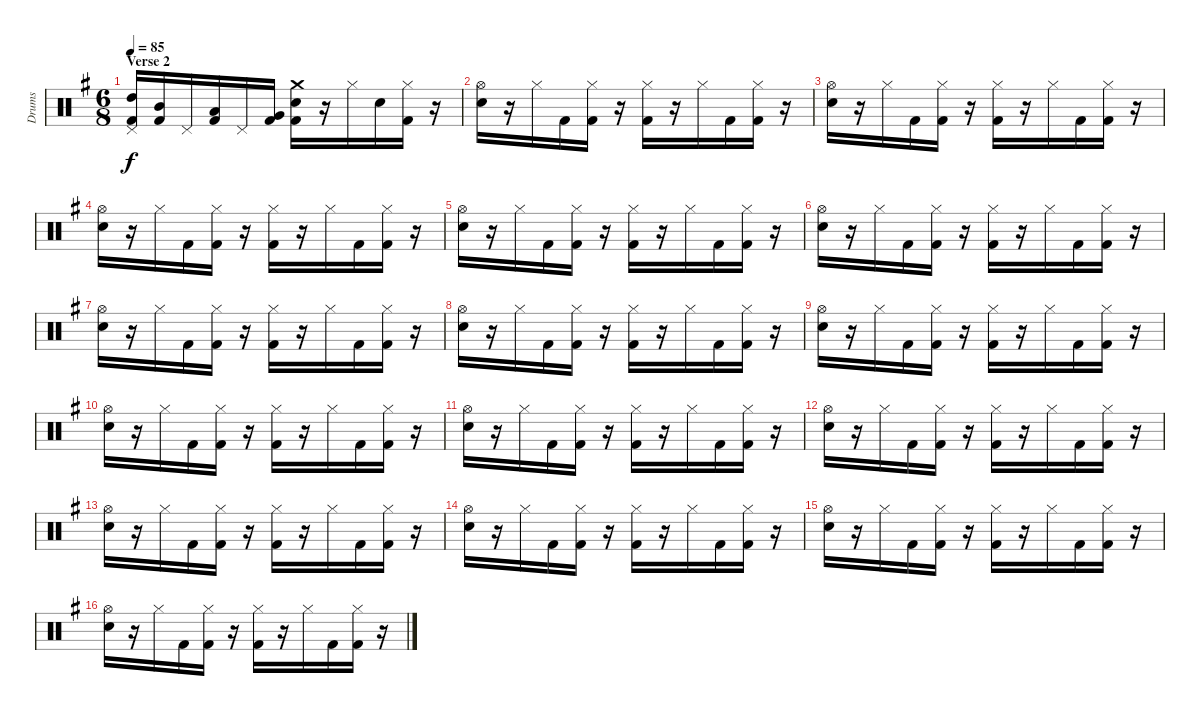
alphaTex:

\track ("Drums" "Drums") {instrument percussion}
\staff {score}
\articulation defaults
\ts (6 8)
\section ("" "Verse 2")
\tempo 85
\clef neutral
\ks eminor
("High Tom (hit)" "Pedal Hi-Hat (hit)" "Kick (hit) 2").16{dy f} ("Mid Tom (hit)" "Kick (hit) 2").16 "Pedal Hi-Hat (hit)".16 ("Low Tom (hit)" "Kick (hit) 2").16 "Pedal Hi-Hat (hit)".16 ("Very Low Tom (hit)" "Kick (hit) 2").16 ("Crash medium (hit)" "Electric Snare (hit)" "Kick (hit) 2").16 r.16 "Hi-Hat (closed)".16 "Electric Snare (hit)".16 ("Hi-Hat (closed)" "Kick (hit) 2").16 r.16 |
("Hi-Hat (open)" "Electric Snare (hit)").16 r.16 "Hi-Hat (closed)".16 "Kick (hit) 2".16 ("Hi-Hat (closed)" "Kick (hit) 2").16 r.16 ("Hi-Hat (closed)" "Kick (hit) 2").16 r.16 "Hi-Hat (closed)".16 "Kick (hit) 2".16 ("Hi-Hat (closed)" "Kick (hit) 2").16 r.16 |
("Hi-Hat (open)" "Electric Snare (hit)").16 r.16 "Hi-Hat (closed)".16 "Kick (hit) 2".16 ("Hi-Hat (closed)" "Kick (hit) 2").16 r.16 ("Hi-Hat (closed)" "Kick (hit) 2").16 r.16 "Hi-Hat (closed)".16 "Kick (hit) 2".16 ("Hi-Hat (closed)" "Kick (hit) 2").16 r.16 |
("Hi-Hat (open)" "Electric Snare (hit)").16 r.16 "Hi-Hat (closed)".16 "Kick (hit) 2".16 ("Hi-Hat (closed)" "Kick (hit) 2").16 r.16 ("Hi-Hat (closed)" "Kick (hit) 2").16 r.16 "Hi-Hat (closed)".16 "Kick (hit) 2".16 ("Hi-Hat (closed)" "Kick (hit) 2").16 r.16 |
("Hi-Hat (open)" "Electric Snare (hit)").16 r.16 "Hi-Hat (closed)".16 "Kick (hit) 2".16 ("Hi-Hat (closed)" "Kick (hit) 2").16 r.16 ("Hi-Hat (closed)" "Kick (hit) 2").16 r.16 "Hi-Hat (closed)".16 "Kick (hit) 2".16 ("Hi-Hat (closed)" "Kick (hit) 2").16 r.16 |
("Hi-Hat (open)" "Electric Snare (hit)").16 r.16 "Hi-Hat (closed)".16 "Kick (hit) 2".16 ("Hi-Hat (closed)" "Kick (hit) 2").16 r.16 ("Hi-Hat (closed)" "Kick (hit) 2").16 r.16 "Hi-Hat (closed)".16 "Kick (hit) 2".16 ("Hi-Hat (closed)" "Kick (hit) 2").16 r.16 |
("Hi-Hat (open)" "Electric Snare (hit)").16 r.16 "Hi-Hat (closed)".16 "Kick (hit) 2".16 ("Hi-Hat (closed)" "Kick (hit) 2").16 r.16 ("Hi-Hat (closed)" "Kick (hit) 2").16 r.16 "Hi-Hat (closed)".16 "Kick (hit) 2".16 ("Hi-Hat (closed)" "Kick (hit) 2").16 r.16 |
("Hi-Hat (open)" "Electric Snare (hit)").16 r.16 "Hi-Hat (closed)".16 "Kick (hit) 2".16 ("Hi-Hat (closed)" "Kick (hit) 2").16 r.16 ("Hi-Hat (closed)" "Kick (hit) 2").16 r.16 "Hi-Hat (closed)".16 "Kick (hit) 2".16 ("Hi-Hat (closed)" "Kick (hit) 2").16 r.16 |
("Hi-Hat (open)" "Electric Snare (hit)").16 r.16 "Hi-Hat (closed)".16 "Kick (hit) 2".16 ("Hi-Hat (closed)" "Kick (hit) 2").16 r.16 ("Hi-Hat (closed)" "Kick (hit) 2").16 r.16 "Hi-Hat (closed)".16 "Kick (hit) 2".16 ("Hi-Hat (closed)" "Kick (hit) 2").16 r.16 |
("Hi-Hat (open)" "Electric Snare (hit)").16 r.16 "Hi-Hat (closed)".16 "Kick (hit) 2".16 ("Hi-Hat (closed)" "Kick (hit) 2").16 r.16 ("Hi-Hat (closed)" "Kick (hit) 2").16 r.16 "Hi-Hat (closed)".16 "Kick (hit) 2".16 ("Hi-Hat (closed)" "Kick (hit) 2").16 r.16 |
("Hi-Hat (open)" "Electric Snare (hit)").16 r.16 "Hi-Hat (closed)".16 "Kick (hit) 2".16 ("Hi-Hat (closed)" "Kick (hit) 2").16 r.16 ("Hi-Hat (closed)" "Kick (hit) 2").16 r.16 "Hi-Hat (closed)".16 "Kick (hit) 2".16 ("Hi-Hat (closed)" "Kick (hit) 2").16 r.16 |
("Hi-Hat (open)" "Electric Snare (hit)").16 r.16 "Hi-Hat (closed)".16 "Kick (hit) 2".16 ("Hi-Hat (closed)" "Kick (hit) 2").16 r.16 ("Hi-Hat (closed)" "Kick (hit) 2").16 r.16 "Hi-Hat (closed)".16 "Kick (hit) 2".16 ("Hi-Hat (closed)" "Kick (hit) 2").16 r.16 |
("Hi-Hat (open)" "Electric Snare (hit)").16 r.16 "Hi-Hat (closed)".16 "Kick (hit) 2".16 ("Hi-Hat (closed)" "Kick (hit) 2").16 r.16 ("Hi-Hat (closed)" "Kick (hit) 2").16 r.16 "Hi-Hat (closed)".16 "Kick (hit) 2".16 ("Hi-Hat (closed)" "Kick (hit) 2").16 r.16 |
("Hi-Hat (open)" "Electric Snare (hit)").16 r.16 "Hi-Hat (closed)".16 "Kick (hit) 2".16 ("Hi-Hat (closed)" "Kick (hit) 2").16 r.16 ("Hi-Hat (closed)" "Kick (hit) 2").16 r.16 "Hi-Hat (closed)".16 "Kick (hit) 2".16 ("Hi-Hat (closed)" "Kick (hit) 2").16 r.16 |
("Hi-Hat (open)" "Electric Snare (hit)").16 r.16 "Hi-Hat (closed)".16 "Kick (hit) 2".16 ("Hi-Hat (closed)" "Kick (hit) 2").16 r.16 ("Hi-Hat (closed)" "Kick (hit) 2").16 r.16 "Hi-Hat (closed)".16 "Kick (hit) 2".16 ("Hi-Hat (closed)" "Kick (hit) 2").16 r.16 |
("Hi-Hat (open)" "Electric Snare (hit)").16 r.16 "Hi-Hat (closed)".16 "Kick (hit) 2".16 ("Hi-Hat (closed)" "Kick (hit) 2").16 r.16 ("Hi-Hat (closed)" "Kick (hit) 2").16 r.16 "Hi-Hat (closed)".16 "Kick (hit) 2".16 ("Hi-Hat (closed)" "Kick (hit) 2").16 r.16
